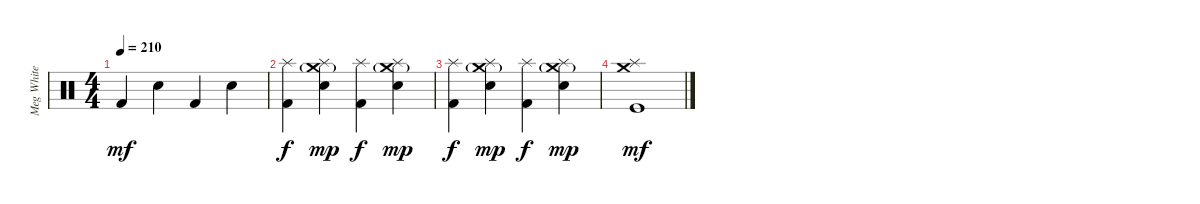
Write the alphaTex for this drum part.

\track ("Meg White (Drums)" "Meg White ") {instrument percussion}
\staff {score}
\articulation defaults
\ts (4 4)
\tempo 210
\clef neutral
\ks c "Kick (hit) 2".4{dy mf} "Electric Snare (hit)".4 "Kick (hit) 2".4 "Electric Snare (hit)".4
|
("Kick (hit) 2" "Splash (hit)").4{dy f} ("Electric Snare (hit)" "Splash (hit)" "Crash medium (hit)"{g}).4{dy mp} ("Kick (hit) 2" "Splash (hit)").4{dy f} ("Electric Snare (hit)" "Splash (hit)" "Crash medium (hit)"{g}).4{dy mp} |
("Kick (hit) 2" "Splash (hit)").4{dy f} ("Electric Snare (hit)" "Splash (hit)" "Crash medium (hit)"{g}).4{dy mp} ("Kick (hit) 2" "Splash (hit)").4{dy f} ("Electric Snare (hit)" "Splash (hit)" "Crash medium (hit)"{g}).4{dy mp} |
("Kick (hit)" "Splash (hit)" "Crash medium (hit)").1{dy mf}
